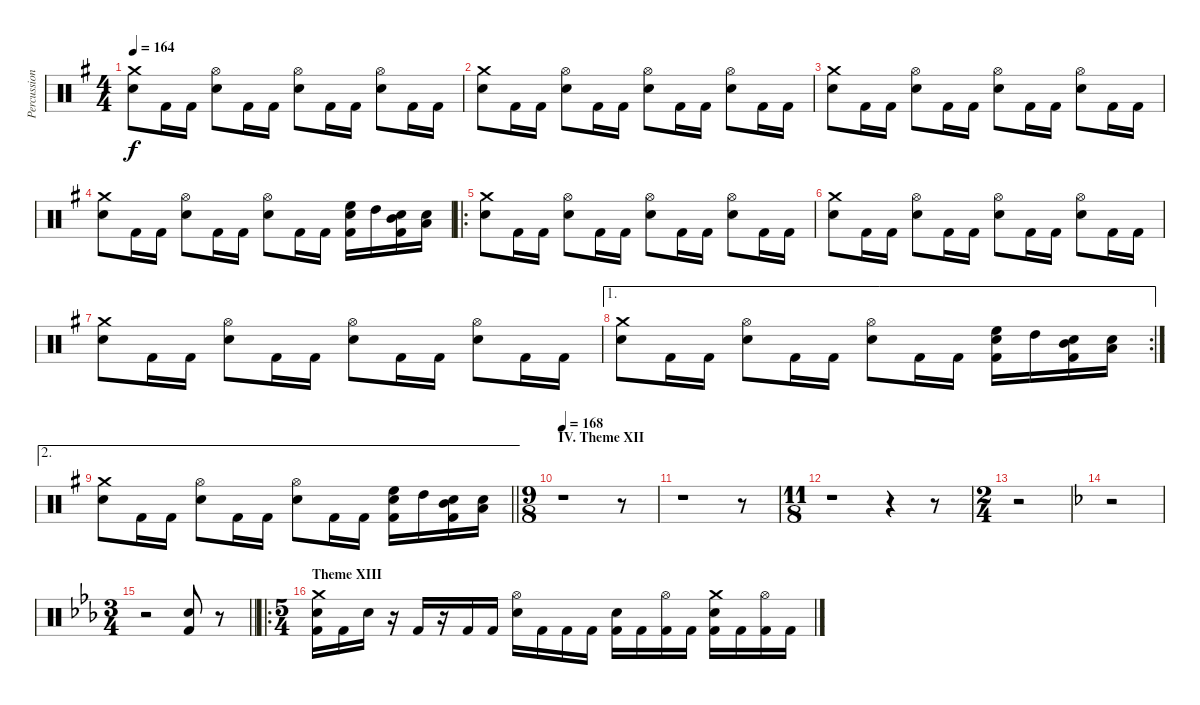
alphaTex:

\track ("Percussion" "Percussion") {instrument percussion}
\staff {score}
\articulation defaults
\ts (4 4)
\tempo 164
\clef neutral
\ks eminor
("Crash medium (hit)" "Snare (hit) 2").8{dy f} "Kick (hit) 2".16 "Kick (hit) 2".16 ("Hi-Hat (open)" "Snare (hit) 2").8 "Kick (hit) 2".16 "Kick (hit) 2".16 ("Hi-Hat (open)" "Snare (hit) 2").8 "Kick (hit) 2".16 "Kick (hit) 2".16 ("Hi-Hat (open)" "Snare (hit) 2").8 "Kick (hit) 2".16 "Kick (hit) 2".16 |
("Crash medium (hit)" "Snare (hit) 2").8 "Kick (hit) 2".16 "Kick (hit) 2".16 ("Hi-Hat (open)" "Snare (hit) 2").8 "Kick (hit) 2".16 "Kick (hit) 2".16 ("Hi-Hat (open)" "Snare (hit) 2").8 "Kick (hit) 2".16 "Kick (hit) 2".16 ("Hi-Hat (open)" "Snare (hit) 2").8 "Kick (hit) 2".16 "Kick (hit) 2".16 |
("Crash medium (hit)" "Snare (hit) 2").8 "Kick (hit) 2".16 "Kick (hit) 2".16 ("Hi-Hat (open)" "Snare (hit) 2").8 "Kick (hit) 2".16 "Kick (hit) 2".16 ("Hi-Hat (open)" "Snare (hit) 2").8 "Kick (hit) 2".16 "Kick (hit) 2".16 ("Hi-Hat (open)" "Snare (hit) 2").8 "Kick (hit) 2".16 "Kick (hit) 2".16 |
("Crash medium (hit)" "Snare (hit) 2").8 "Kick (hit) 2".16 "Kick (hit) 2".16 ("Hi-Hat (open)" "Snare (hit) 2").8 "Kick (hit) 2".16 "Kick (hit) 2".16 ("Hi-Hat (open)" "Snare (hit) 2").8 "Kick (hit) 2".16 "Kick (hit) 2".16 ("High Floor Tom (hit)" "Snare (hit) 2" "Kick (hit) 2").16 "High Tom (hit)".16 ("Mid Tom (hit)" "Snare (hit) 2" "Kick (hit) 2").16 ("Low Tom (hit)" "Snare (hit) 2").16 |
\ro
("Crash medium (hit)" "Snare (hit) 2").8 "Kick (hit) 2".16 "Kick (hit) 2".16 ("Hi-Hat (open)" "Snare (hit) 2").8 "Kick (hit) 2".16 "Kick (hit) 2".16 ("Hi-Hat (open)" "Snare (hit) 2").8 "Kick (hit) 2".16 "Kick (hit) 2".16 ("Hi-Hat (open)" "Snare (hit) 2").8 "Kick (hit) 2".16 "Kick (hit) 2".16 |
("Crash medium (hit)" "Snare (hit) 2").8 "Kick (hit) 2".16 "Kick (hit) 2".16 ("Hi-Hat (open)" "Snare (hit) 2").8 "Kick (hit) 2".16 "Kick (hit) 2".16 ("Hi-Hat (open)" "Snare (hit) 2").8 "Kick (hit) 2".16 "Kick (hit) 2".16 ("Hi-Hat (open)" "Snare (hit) 2").8 "Kick (hit) 2".16 "Kick (hit) 2".16 |
("Crash medium (hit)" "Snare (hit) 2").8 "Kick (hit) 2".16 "Kick (hit) 2".16 ("Hi-Hat (open)" "Snare (hit) 2").8 "Kick (hit) 2".16 "Kick (hit) 2".16 ("Hi-Hat (open)" "Snare (hit) 2").8 "Kick (hit) 2".16 "Kick (hit) 2".16 ("Hi-Hat (open)" "Snare (hit) 2").8 "Kick (hit) 2".16 "Kick (hit) 2".16 |
\ae 1
\rc 2
("Crash medium (hit)" "Snare (hit) 2").8 "Kick (hit) 2".16 "Kick (hit) 2".16 ("Hi-Hat (open)" "Snare (hit) 2").8 "Kick (hit) 2".16 "Kick (hit) 2".16 ("Hi-Hat (open)" "Snare (hit) 2").8 "Kick (hit) 2".16 "Kick (hit) 2".16 ("High Floor Tom (hit)" "Snare (hit) 2" "Kick (hit) 2").16 "High Tom (hit)".16 ("Mid Tom (hit)" "Snare (hit) 2" "Kick (hit) 2").16 ("Low Tom (hit)" "Snare (hit) 2").16 |
\ae 2
\barLineRight lightlight
("Crash medium (hit)" "Snare (hit) 2").8 "Kick (hit) 2".16 "Kick (hit) 2".16 ("Hi-Hat (open)" "Snare (hit) 2").8 "Kick (hit) 2".16 "Kick (hit) 2".16 ("Hi-Hat (open)" "Snare (hit) 2").8 "Kick (hit) 2".16 "Kick (hit) 2".16 ("High Floor Tom (hit)" "Snare (hit) 2" "Kick (hit) 2").16 "High Tom (hit)".16 ("Mid Tom (hit)" "Snare (hit) 2" "Kick (hit) 2").16 ("Low Tom (hit)" "Snare (hit) 2").16 |
\ts (9 8)
\section ("" "IV. Theme XII")
\tempo 168
r.1 r.8 |
r.1 r.8 |
\ts (11 8)
r.1 r.4 r.8 |
\ts (2 4)
r.2 |
\ks dminor
r.2 |
\ts (3 4)
\barLineRight lightlight
\ks cminor
r.2 ("Snare (hit) 2" "Kick (hit) 2").8 r.8 |
\ro
\ts (5 4)
\section ("" "Theme XIII")
("Crash medium (hit)" "Snare (hit) 2" "Kick (hit) 2").16 "Kick (hit) 2".16 "Snare (hit) 2".16 r.16 "Kick (hit) 2".16 r.16 "Kick (hit) 2".16 "Kick (hit) 2".16 ("Hi-Hat (open)" "Snare (hit) 2").16 "Kick (hit) 2".16 "Kick (hit) 2".16 "Kick (hit) 2".16 ("Snare (hit) 2" "Kick (hit) 2").16 "Kick (hit) 2".16 ("Hi-Hat (open)" "Kick (hit) 2").16 "Kick (hit) 2".16 ("Crash medium (hit)" "Snare (hit) 2" "Kick (hit) 2").16 "Kick (hit) 2".16 ("Hi-Hat (open)" "Kick (hit) 2").16 "Kick (hit) 2".16
